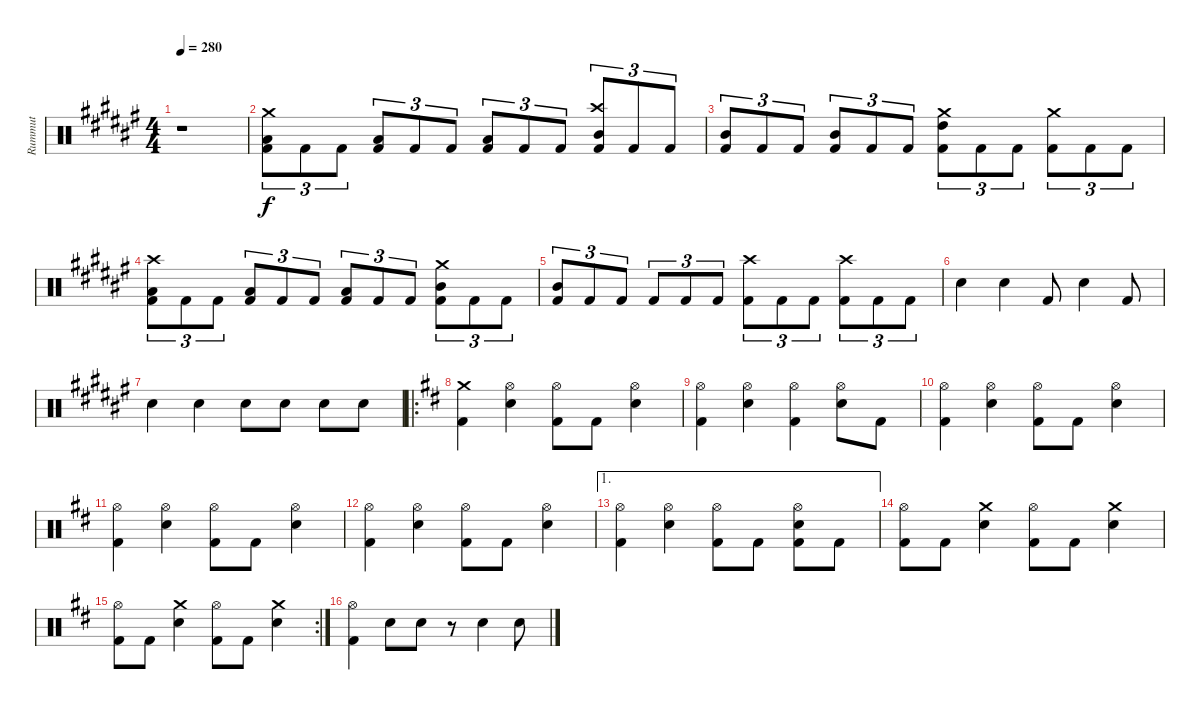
\track ("Rummut" "Rummut") {instrument percussion}
\staff {score}
\articulation defaults
\ts (4 4)
\tempo 280
\clef neutral
\ks f#
r.1{dy f} |
("Crash medium (hit)" "Low Tom (hit)" "Kick (hit) 2").8{tu (3 2)} "Kick (hit) 2".8{tu (3 2)} "Kick (hit) 2".8{tu (3 2)} ("Low Tom (hit)" "Kick (hit) 2").8{tu (3 2)} "Kick (hit) 2".8{tu (3 2)} "Kick (hit) 2".8{tu (3 2)} ("Low Tom (hit)" "Kick (hit) 2").8{tu (3 2)} "Kick (hit) 2".8{tu (3 2)} "Kick (hit) 2".8{tu (3 2)} ("Crash high (hit)" "Mid Tom (hit)" "Kick (hit) 2").8{tu (3 2)} "Kick (hit) 2".8{tu (3 2)} "Kick (hit) 2".8{tu (3 2)} |
("Mid Tom (hit)" "Kick (hit) 2").8{tu (3 2)} "Kick (hit) 2".8{tu (3 2)} "Kick (hit) 2".8{tu (3 2)} ("Mid Tom (hit)" "Kick (hit) 2").8{tu (3 2)} "Kick (hit) 2".8{tu (3 2)} "Kick (hit) 2".8{tu (3 2)} ("Crash medium (hit)" "High Tom (hit)" "Kick (hit) 2").8{tu (3 2)} "Kick (hit) 2".8{tu (3 2)} "Kick (hit) 2".8{tu (3 2)} ("Crash medium (hit)" "Kick (hit) 2").8{tu (3 2)} "Kick (hit) 2".8{tu (3 2)} "Kick (hit) 2".8{tu (3 2)} |
("Crash high (hit)" "Low Tom (hit)" "Kick (hit) 2").8{tu (3 2)} "Kick (hit) 2".8{tu (3 2)} "Kick (hit) 2".8{tu (3 2)} ("Low Tom (hit)" "Kick (hit) 2").8{tu (3 2)} "Kick (hit) 2".8{tu (3 2)} "Kick (hit) 2".8{tu (3 2)} ("Low Tom (hit)" "Kick (hit) 2").8{tu (3 2)} "Kick (hit) 2".8{tu (3 2)} "Kick (hit) 2".8{tu (3 2)} ("Crash medium (hit)" "Mid Tom (hit)" "Kick (hit) 2").8{tu (3 2)} "Kick (hit) 2".8{tu (3 2)} "Kick (hit) 2".8{tu (3 2)} |
("Mid Tom (hit)" "Kick (hit) 2").8{tu (3 2)} "Kick (hit) 2".8{tu (3 2)} "Kick (hit) 2".8{tu (3 2)} "Kick (hit) 2".8{tu (3 2)} "Kick (hit) 2".8{tu (3 2)} "Kick (hit) 2".8{tu (3 2)} ("Crash high (hit)" "Kick (hit) 2").8{tu (3 2)} "Kick (hit) 2".8{tu (3 2)} "Kick (hit) 2".8{tu (3 2)} ("Crash high (hit)" "Kick (hit) 2").8{tu (3 2)} "Kick (hit) 2".8{tu (3 2)} "Kick (hit) 2".8{tu (3 2)} |
"Snare (hit) 2".4 "Snare (hit) 2".4 "Kick (hit) 2".8 "Snare (hit) 2".4 "Kick (hit) 2".8 |
"Snare (hit) 2".4 "Snare (hit) 2".4 "Snare (hit) 2".8 "Snare (hit) 2".8 "Snare (hit) 2".8 "Snare (hit) 2".8 |
\ro
\ks d
("Crash medium (hit)" "Kick (hit) 2").4 ("Hi-Hat (open)" "Snare (hit) 2").4 ("Hi-Hat (open)" "Kick (hit) 2").8 "Kick (hit) 2".8 ("Hi-Hat (open)" "Snare (hit) 2").4 |
("Hi-Hat (open)" "Kick (hit) 2").4 ("Hi-Hat (open)" "Snare (hit) 2").4 ("Hi-Hat (open)" "Kick (hit) 2").4 ("Hi-Hat (open)" "Snare (hit) 2").8 "Kick (hit) 2".8 |
("Hi-Hat (open)" "Kick (hit) 2").4 ("Hi-Hat (open)" "Snare (hit) 2").4 ("Hi-Hat (open)" "Kick (hit) 2").8 "Kick (hit) 2".8 ("Hi-Hat (open)" "Snare (hit) 2").4 |
("Hi-Hat (open)" "Kick (hit) 2").4 ("Hi-Hat (open)" "Snare (hit) 2").4 ("Hi-Hat (open)" "Kick (hit) 2").8 "Kick (hit) 2".8 ("Hi-Hat (open)" "Snare (hit) 2").4 |
("Hi-Hat (open)" "Kick (hit) 2").4 ("Hi-Hat (open)" "Snare (hit) 2").4 ("Hi-Hat (open)" "Kick (hit) 2").8 "Kick (hit) 2".8 ("Hi-Hat (open)" "Snare (hit) 2").4 |
\ae 1
("Hi-Hat (open)" "Kick (hit) 2").4 ("Hi-Hat (open)" "Snare (hit) 2").4 ("Hi-Hat (open)" "Kick (hit) 2").8 "Kick (hit) 2".8 ("Hi-Hat (open)" "Snare (hit) 2" "Kick (hit) 2").8 "Kick (hit) 2".8 |
("Hi-Hat (open)" "Kick (hit) 2").8 "Kick (hit) 2".8 ("Crash medium (hit)" "Snare (hit) 2").4 ("Hi-Hat (open)" "Kick (hit) 2").8 "Kick (hit) 2".8 ("Crash medium (hit)" "Snare (hit) 2").4 |
\rc 2
("Hi-Hat (open)" "Kick (hit) 2").8 "Kick (hit) 2".8 ("Crash medium (hit)" "Snare (hit) 2").4 ("Hi-Hat (open)" "Kick (hit) 2").8 "Kick (hit) 2".8 ("Crash medium (hit)" "Snare (hit) 2").4 |
("Hi-Hat (open)" "Kick (hit) 2").4 "Snare (hit) 2".8 "Snare (hit) 2".8 r.8 "Snare (hit) 2".4 "Snare (hit) 2".8
